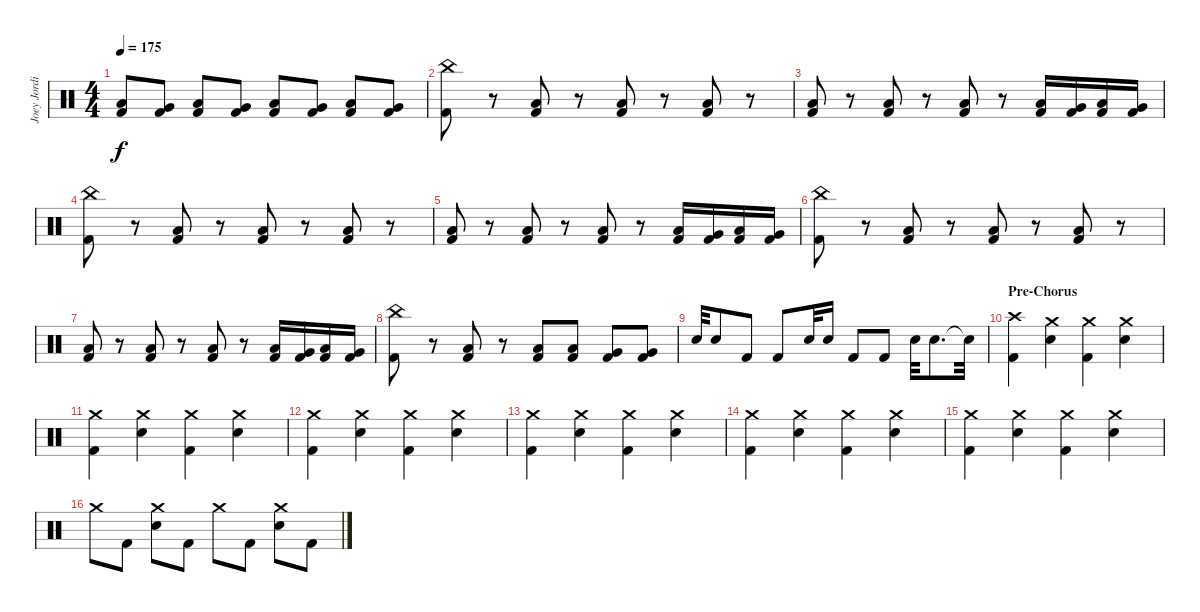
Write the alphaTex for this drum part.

\track ("Joey Jordison (Drums)" "Joey Jordi") {instrument percussion}
\staff {score}
\articulation defaults
\ts (4 4)
\tempo 175
\clef neutral
\ks c
("Low Floor Tom (hit)" "Kick (hit) 2").8{dy f} ("Very Low Tom (hit)" "Kick (hit) 2").8 ("Low Floor Tom (hit)" "Kick (hit) 2").8 ("Very Low Tom (hit)" "Kick (hit) 2").8 ("Low Floor Tom (hit)" "Kick (hit) 2").8 ("Very Low Tom (hit)" "Kick (hit) 2").8 ("Low Floor Tom (hit)" "Kick (hit) 2").8 ("Very Low Tom (hit)" "Kick (hit) 2").8 |
("China (hit)" "Kick (hit) 2").8 r.8 ("Low Floor Tom (hit)" "Kick (hit) 2").8 r.8 ("Low Floor Tom (hit)" "Kick (hit) 2").8 r.8 ("Low Floor Tom (hit)" "Kick (hit) 2").8 r.8 |
("Low Floor Tom (hit)" "Kick (hit) 2").8 r.8 ("Low Floor Tom (hit)" "Kick (hit) 2").8 r.8 ("Low Floor Tom (hit)" "Kick (hit) 2").8 r.8 ("Low Floor Tom (hit)" "Kick (hit) 2").16 ("Very Low Tom (hit)" "Kick (hit) 2").16 ("Low Floor Tom (hit)" "Kick (hit) 2").16 ("Very Low Tom (hit)" "Kick (hit) 2").16 |
("China (hit)" "Kick (hit) 2").8 r.8 ("Low Floor Tom (hit)" "Kick (hit) 2").8 r.8 ("Low Floor Tom (hit)" "Kick (hit) 2").8 r.8 ("Low Floor Tom (hit)" "Kick (hit) 2").8 r.8 |
("Low Floor Tom (hit)" "Kick (hit) 2").8 r.8 ("Low Floor Tom (hit)" "Kick (hit) 2").8 r.8 ("Low Floor Tom (hit)" "Kick (hit) 2").8 r.8 ("Low Floor Tom (hit)" "Kick (hit) 2").16 ("Very Low Tom (hit)" "Kick (hit) 2").16 ("Low Floor Tom (hit)" "Kick (hit) 2").16 ("Very Low Tom (hit)" "Kick (hit) 2").16 |
("China (hit)" "Kick (hit) 2").8 r.8 ("Low Floor Tom (hit)" "Kick (hit) 2").8 r.8 ("Low Floor Tom (hit)" "Kick (hit) 2").8 r.8 ("Low Floor Tom (hit)" "Kick (hit) 2").8 r.8 |
("Low Floor Tom (hit)" "Kick (hit) 2").8 r.8 ("Low Floor Tom (hit)" "Kick (hit) 2").8 r.8 ("Low Floor Tom (hit)" "Kick (hit) 2").8 r.8 ("Low Floor Tom (hit)" "Kick (hit) 2").16 ("Very Low Tom (hit)" "Kick (hit) 2").16 ("Low Floor Tom (hit)" "Kick (hit) 2").16 ("Very Low Tom (hit)" "Kick (hit) 2").16 |
("China (hit)" "Kick (hit) 2").8 r.8 ("Low Floor Tom (hit)" "Kick (hit) 2").8 r.8 ("Low Floor Tom (hit)" "Kick (hit) 2").8 ("Low Floor Tom (hit)" "Kick (hit) 2").8 ("Very Low Tom (hit)" "Kick (hit) 2").8 ("Very Low Tom (hit)" "Kick (hit) 2").8 |
"Electric Snare (hit)".32 "Electric Snare (hit)".8 "Kick (hit) 2".8 "Kick (hit) 2".8 "Electric Snare (hit)".32 "Electric Snare (hit)".16 "Kick (hit) 2".8 "Kick (hit) 2".8 "Electric Snare (hit)".32 "Electric Snare (hit)".8{d} "Electric Snare (hit)"{t}.32 |
\section ("" "Pre-Chorus")
("Crash high (hit)" "Kick (hit) 2").4 ("Crash medium (hit)" "Electric Snare (hit)").4 ("Crash medium (hit)" "Kick (hit) 2").4 ("Crash medium (hit)" "Electric Snare (hit)").4 |
("Crash medium (hit)" "Kick (hit) 2").4 ("Crash medium (hit)" "Electric Snare (hit)").4 ("Crash medium (hit)" "Kick (hit) 2").4 ("Crash medium (hit)" "Electric Snare (hit)").4 |
("Crash medium (hit)" "Kick (hit) 2").4 ("Crash medium (hit)" "Electric Snare (hit)").4 ("Crash medium (hit)" "Kick (hit) 2").4 ("Crash medium (hit)" "Electric Snare (hit)").4 |
("Crash medium (hit)" "Kick (hit) 2").4 ("Crash medium (hit)" "Electric Snare (hit)").4 ("Crash medium (hit)" "Kick (hit) 2").4 ("Crash medium (hit)" "Electric Snare (hit)").4 |
("Crash medium (hit)" "Kick (hit) 2").4 ("Crash medium (hit)" "Electric Snare (hit)").4 ("Crash medium (hit)" "Kick (hit) 2").4 ("Crash medium (hit)" "Electric Snare (hit)").4 |
("Crash medium (hit)" "Kick (hit) 2").4 ("Crash medium (hit)" "Electric Snare (hit)").4 ("Crash medium (hit)" "Kick (hit) 2").4 ("Crash medium (hit)" "Electric Snare (hit)").4 |
"Crash medium (hit)".8 "Kick (hit) 2".8 ("Crash medium (hit)" "Electric Snare (hit)").8 "Kick (hit) 2".8 "Crash medium (hit)".8 "Kick (hit) 2".8 ("Crash medium (hit)" "Electric Snare (hit)").8 "Kick (hit) 2".8
